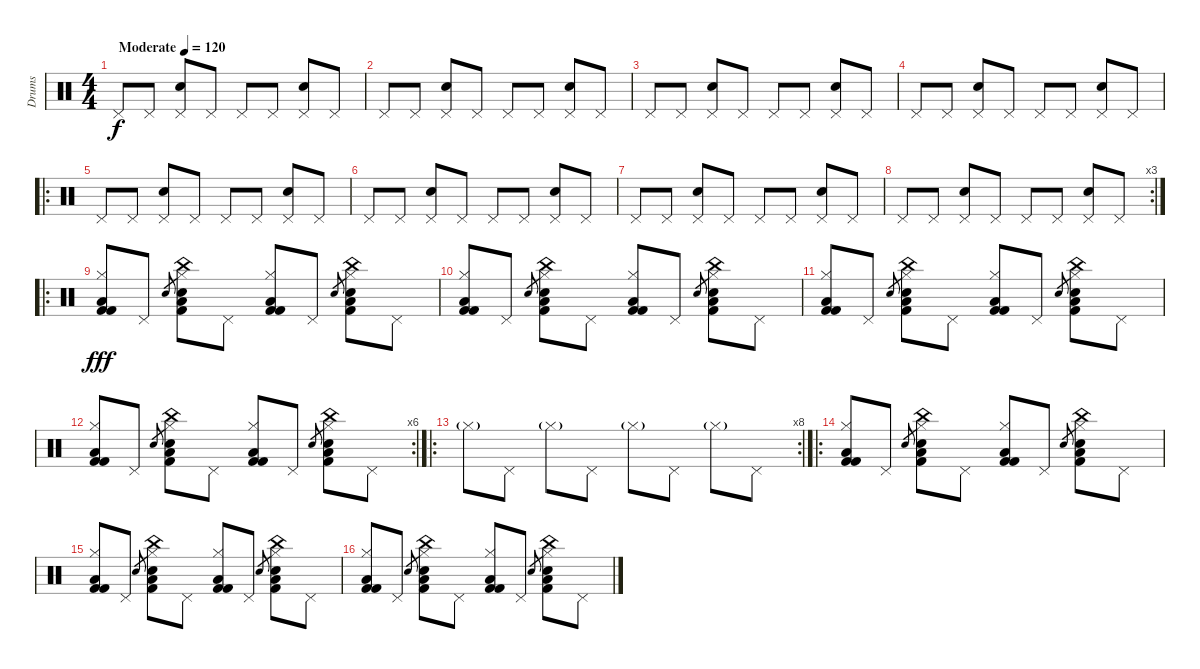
\track ("Drums" "Drums") {instrument percussion}
\staff {score}
\articulation defaults
\ts (4 4)
\tempo (120 "Moderate")
\clef neutral
\ks c "Pedal Hi-Hat (hit)".8{dy f} "Pedal Hi-Hat (hit)".8
("Pedal Hi-Hat (hit)" "Electric Snare (hit)").8 "Pedal Hi-Hat (hit)".8 "Pedal Hi-Hat (hit)".8 "Pedal Hi-Hat (hit)".8 ("Pedal Hi-Hat (hit)" "Electric Snare (hit)").8 "Pedal Hi-Hat (hit)".8 |
"Pedal Hi-Hat (hit)".8 "Pedal Hi-Hat (hit)".8 ("Pedal Hi-Hat (hit)" "Electric Snare (hit)").8 "Pedal Hi-Hat (hit)".8 "Pedal Hi-Hat (hit)".8 "Pedal Hi-Hat (hit)".8 ("Pedal Hi-Hat (hit)" "Electric Snare (hit)").8 "Pedal Hi-Hat (hit)".8 |
"Pedal Hi-Hat (hit)".8 "Pedal Hi-Hat (hit)".8 ("Pedal Hi-Hat (hit)" "Electric Snare (hit)").8 "Pedal Hi-Hat (hit)".8 "Pedal Hi-Hat (hit)".8 "Pedal Hi-Hat (hit)".8 ("Pedal Hi-Hat (hit)" "Electric Snare (hit)").8 "Pedal Hi-Hat (hit)".8 |
"Pedal Hi-Hat (hit)".8 "Pedal Hi-Hat (hit)".8 ("Pedal Hi-Hat (hit)" "Electric Snare (hit)").8 "Pedal Hi-Hat (hit)".8 "Pedal Hi-Hat (hit)".8 "Pedal Hi-Hat (hit)".8 ("Pedal Hi-Hat (hit)" "Electric Snare (hit)").8 "Pedal Hi-Hat (hit)".8 |
\ro "Pedal Hi-Hat (hit)".8 "Pedal Hi-Hat (hit)".8
("Pedal Hi-Hat (hit)" "Electric Snare (hit)").8 "Pedal Hi-Hat (hit)".8 "Pedal Hi-Hat (hit)".8 "Pedal Hi-Hat (hit)".8 ("Pedal Hi-Hat (hit)" "Electric Snare (hit)").8 "Pedal Hi-Hat (hit)".8 |
"Pedal Hi-Hat (hit)".8 "Pedal Hi-Hat (hit)".8 ("Pedal Hi-Hat (hit)" "Electric Snare (hit)").8 "Pedal Hi-Hat (hit)".8 "Pedal Hi-Hat (hit)".8 "Pedal Hi-Hat (hit)".8 ("Pedal Hi-Hat (hit)" "Electric Snare (hit)").8 "Pedal Hi-Hat (hit)".8 |
"Pedal Hi-Hat (hit)".8 "Pedal Hi-Hat (hit)".8 ("Pedal Hi-Hat (hit)" "Electric Snare (hit)").8 "Pedal Hi-Hat (hit)".8 "Pedal Hi-Hat (hit)".8 "Pedal Hi-Hat (hit)".8 ("Pedal Hi-Hat (hit)" "Electric Snare (hit)").8 "Pedal Hi-Hat (hit)".8 |
\rc 3 "Pedal Hi-Hat (hit)".8 "Pedal Hi-Hat (hit)".8
("Pedal Hi-Hat (hit)" "Electric Snare (hit)").8 "Pedal Hi-Hat (hit)".8 "Pedal Hi-Hat (hit)".8 "Pedal Hi-Hat (hit)".8 ("Pedal Hi-Hat (hit)" "Electric Snare (hit)").8 "Pedal Hi-Hat (hit)".8 |
\ro
("Kick (hit) 2" "Hi-Hat (closed)" "Low Floor Tom (hit)" "Kick (hit) 2").8{dy fff} "Pedal Hi-Hat (hit)".8 "Hand Clap (hit)".8{gr} ("Kick (hit) 2" "Hi-Hat (closed)" "Electric Snare (hit)" "China (hit)" "Low Floor Tom (hit)").8 "Pedal Hi-Hat (hit)".8 ("Kick (hit) 2" "Hi-Hat (closed)" "Low Floor Tom (hit)" "Kick (hit) 2").8 "Pedal Hi-Hat (hit)".8 "Hand Clap (hit)".8{gr} ("Kick (hit) 2" "Hi-Hat (closed)" "Electric Snare (hit)" "China (hit)" "Low Floor Tom (hit)").8 "Pedal Hi-Hat (hit)".8 |
("Kick (hit) 2" "Hi-Hat (closed)" "Low Floor Tom (hit)" "Kick (hit) 2").8 "Pedal Hi-Hat (hit)".8 "Hand Clap (hit)".8{gr} ("Kick (hit) 2" "Hi-Hat (closed)" "Electric Snare (hit)" "China (hit)" "Low Floor Tom (hit)").8 "Pedal Hi-Hat (hit)".8 ("Kick (hit) 2" "Hi-Hat (closed)" "Low Floor Tom (hit)" "Kick (hit) 2").8 "Pedal Hi-Hat (hit)".8 "Hand Clap (hit)".8{gr} ("Kick (hit) 2" "Hi-Hat (closed)" "Electric Snare (hit)" "China (hit)" "Low Floor Tom (hit)").8 "Pedal Hi-Hat (hit)".8 |
("Kick (hit) 2" "Hi-Hat (closed)" "Low Floor Tom (hit)" "Kick (hit) 2").8 "Pedal Hi-Hat (hit)".8 "Hand Clap (hit)".8{gr} ("Kick (hit) 2" "Hi-Hat (closed)" "Electric Snare (hit)" "China (hit)" "Low Floor Tom (hit)").8 "Pedal Hi-Hat (hit)".8 ("Kick (hit) 2" "Hi-Hat (closed)" "Low Floor Tom (hit)" "Kick (hit) 2").8 "Pedal Hi-Hat (hit)".8 "Hand Clap (hit)".8{gr} ("Kick (hit) 2" "Hi-Hat (closed)" "Electric Snare (hit)" "China (hit)" "Low Floor Tom (hit)").8 "Pedal Hi-Hat (hit)".8 |
\rc 6
("Kick (hit) 2" "Hi-Hat (closed)" "Low Floor Tom (hit)" "Kick (hit) 2").8 "Pedal Hi-Hat (hit)".8 "Hand Clap (hit)".8{gr} ("Kick (hit) 2" "Hi-Hat (closed)" "Electric Snare (hit)" "China (hit)" "Low Floor Tom (hit)").8 "Pedal Hi-Hat (hit)".8 ("Kick (hit) 2" "Hi-Hat (closed)" "Low Floor Tom (hit)" "Kick (hit) 2").8 "Pedal Hi-Hat (hit)".8 "Hand Clap (hit)".8{gr} ("Kick (hit) 2" "Hi-Hat (closed)" "Electric Snare (hit)" "China (hit)" "Low Floor Tom (hit)").8 "Pedal Hi-Hat (hit)".8 |
\ro
\rc 8 "Hi-Hat (closed)"{g}.8{volume 10} "Pedal Hi-Hat (hit)".8 "Hi-Hat (closed)"{g}.8 "Pedal Hi-Hat (hit)".8 "Hi-Hat (closed)"{g}.8 "Pedal Hi-Hat (hit)".8 "Hi-Hat (closed)"{g}.8 "Pedal Hi-Hat (hit)".8
|
\ro
("Kick (hit) 2" "Hi-Hat (closed)" "Low Floor Tom (hit)" "Kick (hit) 2").8 "Pedal Hi-Hat (hit)".8 "Hand Clap (hit)".8{gr} ("Kick (hit) 2" "Hi-Hat (closed)" "Electric Snare (hit)" "China (hit)" "Low Floor Tom (hit)").8 "Pedal Hi-Hat (hit)".8 ("Kick (hit) 2" "Hi-Hat (closed)" "Low Floor Tom (hit)" "Kick (hit) 2").8 "Pedal Hi-Hat (hit)".8 "Hand Clap (hit)".8{gr} ("Kick (hit) 2" "Hi-Hat (closed)" "Electric Snare (hit)" "China (hit)" "Low Floor Tom (hit)").8 "Pedal Hi-Hat (hit)".8 |
("Kick (hit) 2" "Hi-Hat (closed)" "Low Floor Tom (hit)" "Kick (hit) 2").8 "Pedal Hi-Hat (hit)".8 "Hand Clap (hit)".8{gr} ("Kick (hit) 2" "Hi-Hat (closed)" "Electric Snare (hit)" "China (hit)" "Low Floor Tom (hit)").8 "Pedal Hi-Hat (hit)".8 ("Kick (hit) 2" "Hi-Hat (closed)" "Low Floor Tom (hit)" "Kick (hit) 2").8 "Pedal Hi-Hat (hit)".8 "Hand Clap (hit)".8{gr} ("Kick (hit) 2" "Hi-Hat (closed)" "Electric Snare (hit)" "China (hit)" "Low Floor Tom (hit)").8 "Pedal Hi-Hat (hit)".8 |
("Kick (hit) 2" "Hi-Hat (closed)" "Low Floor Tom (hit)" "Kick (hit) 2").8 "Pedal Hi-Hat (hit)".8 "Hand Clap (hit)".8{gr} ("Kick (hit) 2" "Hi-Hat (closed)" "Electric Snare (hit)" "China (hit)" "Low Floor Tom (hit)").8 "Pedal Hi-Hat (hit)".8 ("Kick (hit) 2" "Hi-Hat (closed)" "Low Floor Tom (hit)" "Kick (hit) 2").8 "Pedal Hi-Hat (hit)".8 "Hand Clap (hit)".8{gr} ("Kick (hit) 2" "Hi-Hat (closed)" "Electric Snare (hit)" "China (hit)" "Low Floor Tom (hit)").8 "Pedal Hi-Hat (hit)".8
